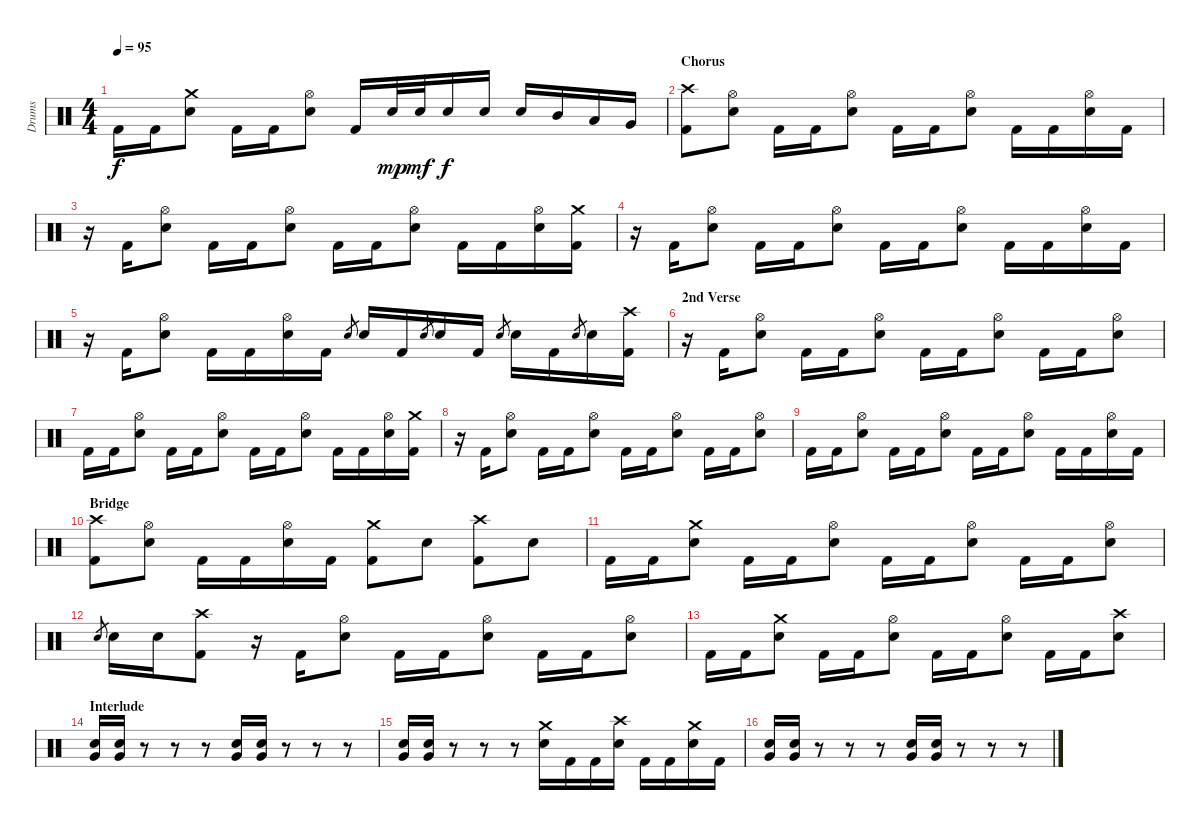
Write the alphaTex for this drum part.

\track ("Drums" "Drums") {instrument percussion}
\staff {score}
\articulation defaults
\ts (4 4)
\tempo 95
\clef neutral
\ks c "Kick (hit) 2".16{dy f} "Kick (hit) 2".16
("Crash medium (hit)" "Snare (hit) 2").8 "Kick (hit) 2".16 "Kick (hit) 2".16 ("Hi-Hat (open)" "Snare (hit) 2").8 "Kick (hit) 2".16 "Snare (hit) 2".32{dy mp} "Snare (hit) 2".32{dy mf} "Snare (hit) 2".16{dy f} "Snare (hit) 2".16 "Snare (hit) 2".16 "Mid Tom (hit)".16 "Low Tom (hit)".16 "Very Low Tom (hit)".16 |
\section ("" "Chorus")
("Crash high (hit)" "Kick (hit) 2").8 ("Hi-Hat (open)" "Snare (hit) 2").8 "Kick (hit) 2".16 "Kick (hit) 2".16 ("Hi-Hat (open)" "Snare (hit) 2").8 "Kick (hit) 2".16 "Kick (hit) 2".16 ("Hi-Hat (open)" "Snare (hit) 2").8 "Kick (hit) 2".16 "Kick (hit) 2".16 ("Hi-Hat (open)" "Snare (hit) 2").16 "Kick (hit) 2".16 |
r.16 "Kick (hit) 2".16 ("Hi-Hat (open)" "Snare (hit) 2").8 "Kick (hit) 2".16 "Kick (hit) 2".16 ("Hi-Hat (open)" "Snare (hit) 2").8 "Kick (hit) 2".16 "Kick (hit) 2".16 ("Hi-Hat (open)" "Snare (hit) 2").8 "Kick (hit) 2".16 "Kick (hit) 2".16 ("Hi-Hat (open)" "Snare (hit) 2").16 ("Crash medium (hit)" "Kick (hit) 2").16 |
r.16 "Kick (hit) 2".16 ("Hi-Hat (open)" "Snare (hit) 2").8 "Kick (hit) 2".16 "Kick (hit) 2".16 ("Hi-Hat (open)" "Snare (hit) 2").8 "Kick (hit) 2".16 "Kick (hit) 2".16 ("Hi-Hat (open)" "Snare (hit) 2").8 "Kick (hit) 2".16 "Kick (hit) 2".16 ("Hi-Hat (open)" "Snare (hit) 2").16 "Kick (hit) 2".16 |
r.16 "Kick (hit) 2".16 ("Hi-Hat (open)" "Snare (hit) 2").8 "Kick (hit) 2".16 "Kick (hit) 2".16 ("Hi-Hat (open)" "Snare (hit) 2").16 "Kick (hit) 2".16 "Snare (hit) 2".8{gr} "Snare (hit) 2".16 "Kick (hit) 2".16 "Snare (hit) 2".8{gr} "Snare (hit) 2".16 "Kick (hit) 2".16 "Snare (hit) 2".8{gr} "Snare (hit) 2".16 "Kick (hit) 2".16 "Snare (hit) 2".8{gr} "Snare (hit) 2".16 ("Crash high (hit)" "Kick (hit) 2").16 |
\section ("" "2nd Verse")
r.16 "Kick (hit) 2".16 ("Hi-Hat (open)" "Snare (hit) 2").8 "Kick (hit) 2".16 "Kick (hit) 2".16 ("Hi-Hat (open)" "Snare (hit) 2").8 "Kick (hit) 2".16 "Kick (hit) 2".16 ("Hi-Hat (open)" "Snare (hit) 2").8 "Kick (hit) 2".16 "Kick (hit) 2".16 ("Hi-Hat (open)" "Snare (hit) 2").8 |
"Kick (hit) 2".16 "Kick (hit) 2".16 ("Hi-Hat (open)" "Snare (hit) 2").8 "Kick (hit) 2".16 "Kick (hit) 2".16 ("Hi-Hat (open)" "Snare (hit) 2").8 "Kick (hit) 2".16 "Kick (hit) 2".16 ("Hi-Hat (open)" "Snare (hit) 2").8 "Kick (hit) 2".16 "Kick (hit) 2".16 ("Hi-Hat (open)" "Snare (hit) 2").16 ("Crash medium (hit)" "Kick (hit) 2").16 |
r.16 "Kick (hit) 2".16 ("Hi-Hat (open)" "Snare (hit) 2").8 "Kick (hit) 2".16 "Kick (hit) 2".16 ("Hi-Hat (open)" "Snare (hit) 2").8 "Kick (hit) 2".16 "Kick (hit) 2".16 ("Hi-Hat (open)" "Snare (hit) 2").8 "Kick (hit) 2".16 "Kick (hit) 2".16 ("Hi-Hat (open)" "Snare (hit) 2").8 |
"Kick (hit) 2".16 "Kick (hit) 2".16 ("Hi-Hat (open)" "Snare (hit) 2").8 "Kick (hit) 2".16 "Kick (hit) 2".16 ("Hi-Hat (open)" "Snare (hit) 2").8 "Kick (hit) 2".16 "Kick (hit) 2".16 ("Hi-Hat (open)" "Snare (hit) 2").8 "Kick (hit) 2".16 "Kick (hit) 2".16 ("Hi-Hat (open)" "Snare (hit) 2").16 "Kick (hit) 2".16 |
\section ("" "Bridge")
("Crash high (hit)" "Kick (hit) 2").8 ("Hi-Hat (open)" "Snare (hit) 2").8 "Kick (hit) 2".16 "Kick (hit) 2".16 ("Hi-Hat (open)" "Snare (hit) 2").16 "Kick (hit) 2".16 ("Crash medium (hit)" "Kick (hit) 2").8 "Snare (hit) 2".8 ("Crash high (hit)" "Kick (hit) 2").8 "Snare (hit) 2".8 |
"Kick (hit) 2".16 "Kick (hit) 2".16 ("Crash medium (hit)" "Snare (hit) 2").8 "Kick (hit) 2".16 "Kick (hit) 2".16 ("Hi-Hat (open)" "Snare (hit) 2").8 "Kick (hit) 2".16 "Kick (hit) 2".16 ("Hi-Hat (open)" "Snare (hit) 2").8 "Kick (hit) 2".16 "Kick (hit) 2".16 ("Hi-Hat (open)" "Snare (hit) 2").8 |
"Snare (hit) 2".8{gr} "Snare (hit) 2".16 "Snare (hit) 2".16 ("Crash high (hit)" "Kick (hit) 2").8 r.16 "Kick (hit) 2".16 ("Hi-Hat (open)" "Snare (hit) 2").8 "Kick (hit) 2".16 "Kick (hit) 2".16 ("Hi-Hat (open)" "Snare (hit) 2").8 "Kick (hit) 2".16 "Kick (hit) 2".16 ("Hi-Hat (open)" "Snare (hit) 2").8 |
"Kick (hit) 2".16 "Kick (hit) 2".16 ("Crash medium (hit)" "Snare (hit) 2").8 "Kick (hit) 2".16 "Kick (hit) 2".16 ("Hi-Hat (open)" "Snare (hit) 2").8 "Kick (hit) 2".16 "Kick (hit) 2".16 ("Hi-Hat (open)" "Snare (hit) 2").8 "Kick (hit) 2".16 "Kick (hit) 2".16 ("Crash high (hit)" "Snare (hit) 2").8 |
\section ("" "Interlude")
("Snare (hit) 2" "Very Low Tom (hit)").16 ("Snare (hit) 2" "Very Low Tom (hit)").16 r.8 r.8 r.8 ("Snare (hit) 2" "Very Low Tom (hit)").16 ("Snare (hit) 2" "Very Low Tom (hit)").16 r.8 r.8 r.8 |
("Snare (hit) 2" "Very Low Tom (hit)").16 ("Snare (hit) 2" "Very Low Tom (hit)").16 r.8 r.8 r.8 ("Crash medium (hit)" "Snare (hit) 2").16 "Kick (hit) 2".16 "Kick (hit) 2".16 ("Crash high (hit)" "Snare (hit) 2").16 "Kick (hit) 2".16 "Kick (hit) 2".16 ("Crash medium (hit)" "Snare (hit) 2").16 "Kick (hit) 2".16 |
("Snare (hit) 2" "Very Low Tom (hit)").16 ("Snare (hit) 2" "Very Low Tom (hit)").16 r.8 r.8 r.8 ("Snare (hit) 2" "Very Low Tom (hit)").16 ("Snare (hit) 2" "Very Low Tom (hit)").16 r.8 r.8 r.8
